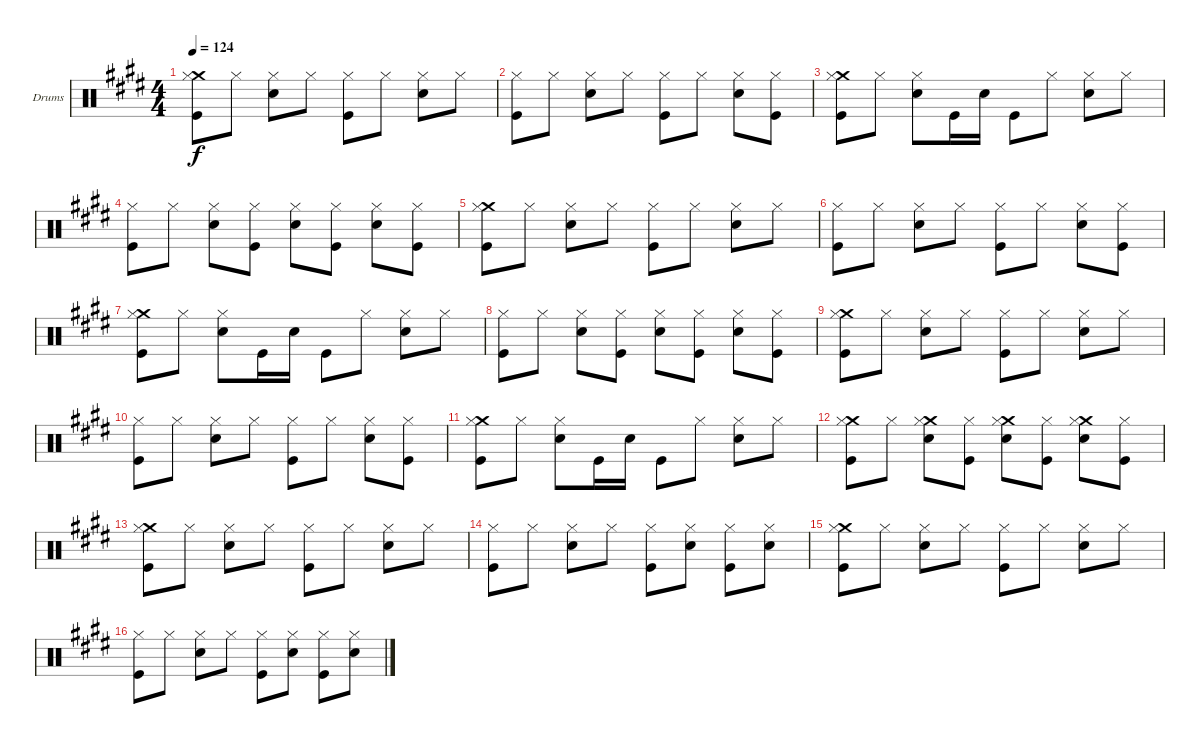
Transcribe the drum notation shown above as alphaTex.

\defaultSystemsLayout 4
\bracketExtendMode groupsimilarinstruments
\firstSystemTrackNameOrientation horizontal
\otherSystemsTrackNameOrientation horizontal
\track ("Drumkit" "Drums") {instrument percussion}
\staff {score}
\articulation defaults
\ts (4 4)
\tempo 124
\clef neutral
\scale
1.06557
\ks e
("Crash medium (hit)" "Hi-Hat (closed)" "Kick (hit)").8{dy f} "Hi-Hat (closed)".8 ("Hi-Hat (closed)" "Snare (hit) 2").8 "Hi-Hat (closed)".8 ("Hi-Hat (closed)" "Kick (hit)").8 "Hi-Hat (closed)".8 ("Hi-Hat (closed)" "Snare (hit) 2").8 "Hi-Hat (closed)".8 |
\scale
0.934426 ("Hi-Hat (closed)" "Kick (hit)").8 "Hi-Hat (closed)".8 ("Hi-Hat (closed)" "Snare (hit) 2").8 "Hi-Hat (closed)".8 ("Hi-Hat (closed)" "Kick (hit)").8 "Hi-Hat (closed)".8 ("Hi-Hat (closed)" "Snare (hit) 2").8 ("Hi-Hat (closed)" "Kick (hit)").8 |
\scale
1.06557 ("Crash medium (hit)" "Hi-Hat (closed)" "Kick (hit)").8 "Hi-Hat (closed)".8 ("Hi-Hat (closed)" "Snare (hit) 2").8 "Kick (hit)".16 "Snare (hit) 2".16 "Kick (hit)".8 "Hi-Hat (closed)".8 ("Hi-Hat (closed)" "Snare (hit) 2").8 "Hi-Hat (closed)".8 |
\scale
0.934426 ("Hi-Hat (closed)" "Kick (hit)").8 "Hi-Hat (closed)".8 ("Hi-Hat (closed)" "Snare (hit) 2").8 ("Hi-Hat (closed)" "Kick (hit)").8 ("Hi-Hat (closed)" "Snare (hit) 2").8 ("Hi-Hat (closed)" "Kick (hit)").8 ("Hi-Hat (closed)" "Snare (hit) 2").8 ("Hi-Hat (closed)" "Kick (hit)").8 |
\scale
1.06557 ("Crash medium (hit)" "Hi-Hat (closed)" "Kick (hit)").8 "Hi-Hat (closed)".8 ("Hi-Hat (closed)" "Snare (hit) 2").8 "Hi-Hat (closed)".8 ("Hi-Hat (closed)" "Kick (hit)").8 "Hi-Hat (closed)".8 ("Hi-Hat (closed)" "Snare (hit) 2").8 "Hi-Hat (closed)".8 |
\scale
0.934426 ("Hi-Hat (closed)" "Kick (hit)").8 "Hi-Hat (closed)".8 ("Hi-Hat (closed)" "Snare (hit) 2").8 "Hi-Hat (closed)".8 ("Hi-Hat (closed)" "Kick (hit)").8 "Hi-Hat (closed)".8 ("Hi-Hat (closed)" "Snare (hit) 2").8 ("Hi-Hat (closed)" "Kick (hit)").8 |
\scale
1.06557 ("Crash medium (hit)" "Hi-Hat (closed)" "Kick (hit)").8 "Hi-Hat (closed)".8 ("Hi-Hat (closed)" "Snare (hit) 2").8 "Kick (hit)".16 "Snare (hit) 2".16 "Kick (hit)".8 "Hi-Hat (closed)".8 ("Hi-Hat (closed)" "Snare (hit) 2").8 "Hi-Hat (closed)".8 |
\scale
0.934426 ("Hi-Hat (closed)" "Kick (hit)").8 "Hi-Hat (closed)".8 ("Hi-Hat (closed)" "Snare (hit) 2").8 ("Hi-Hat (closed)" "Kick (hit)").8 ("Hi-Hat (closed)" "Snare (hit) 2").8 ("Hi-Hat (closed)" "Kick (hit)").8 ("Hi-Hat (closed)" "Snare (hit) 2").8 ("Hi-Hat (closed)" "Kick (hit)").8 |
\scale
1.06557 ("Crash medium (hit)" "Hi-Hat (closed)" "Kick (hit)").8 "Hi-Hat (closed)".8 ("Hi-Hat (closed)" "Snare (hit) 2").8 "Hi-Hat (closed)".8 ("Hi-Hat (closed)" "Kick (hit)").8 "Hi-Hat (closed)".8 ("Hi-Hat (closed)" "Snare (hit) 2").8 "Hi-Hat (closed)".8 |
\scale
0.934426 ("Hi-Hat (closed)" "Kick (hit)").8 "Hi-Hat (closed)".8 ("Hi-Hat (closed)" "Snare (hit) 2").8 "Hi-Hat (closed)".8 ("Hi-Hat (closed)" "Kick (hit)").8 "Hi-Hat (closed)".8 ("Hi-Hat (closed)" "Snare (hit) 2").8 ("Hi-Hat (closed)" "Kick (hit)").8 |
\scale
1.06557 ("Crash medium (hit)" "Hi-Hat (closed)" "Kick (hit)").8 "Hi-Hat (closed)".8 ("Hi-Hat (closed)" "Snare (hit) 2").8 "Kick (hit)".16 "Snare (hit) 2".16 "Kick (hit)".8 "Hi-Hat (closed)".8 ("Hi-Hat (closed)" "Snare (hit) 2").8 "Hi-Hat (closed)".8 |
\scale
0.934426 ("Crash medium (hit)" "Hi-Hat (closed)" "Kick (hit)").8 "Hi-Hat (closed)".8 ("Crash medium (hit)" "Hi-Hat (closed)" "Snare (hit) 2").8 ("Hi-Hat (closed)" "Kick (hit)").8 ("Crash medium (hit)" "Hi-Hat (closed)" "Snare (hit) 2").8 ("Hi-Hat (closed)" "Kick (hit)").8 ("Crash medium (hit)" "Hi-Hat (closed)" "Snare (hit) 2").8 ("Hi-Hat (closed)" "Kick (hit)").8 |
\scale
1.06557 ("Crash medium (hit)" "Hi-Hat (closed)" "Kick (hit)").8 "Hi-Hat (closed)".8 ("Hi-Hat (closed)" "Snare (hit) 2").8 "Hi-Hat (closed)".8 ("Hi-Hat (closed)" "Kick (hit)").8 "Hi-Hat (closed)".8 ("Hi-Hat (closed)" "Snare (hit) 2").8 "Hi-Hat (closed)".8 |
\scale
0.934426 ("Hi-Hat (closed)" "Kick (hit)").8 "Hi-Hat (closed)".8 ("Hi-Hat (closed)" "Snare (hit) 2").8 "Hi-Hat (closed)".8 ("Hi-Hat (closed)" "Kick (hit)").8 ("Hi-Hat (closed)" "Snare (hit) 2").8 ("Hi-Hat (closed)" "Kick (hit)").8 ("Hi-Hat (closed)" "Snare (hit) 2").8 |
\scale
1.06557 ("Crash medium (hit)" "Hi-Hat (closed)" "Kick (hit)").8 "Hi-Hat (closed)".8 ("Hi-Hat (closed)" "Snare (hit) 2").8 "Hi-Hat (closed)".8 ("Hi-Hat (closed)" "Kick (hit)").8 "Hi-Hat (closed)".8 ("Hi-Hat (closed)" "Snare (hit) 2").8 "Hi-Hat (closed)".8 |
\scale
0.934426 ("Hi-Hat (closed)" "Kick (hit)").8 "Hi-Hat (closed)".8 ("Hi-Hat (closed)" "Snare (hit) 2").8 "Hi-Hat (closed)".8 ("Hi-Hat (closed)" "Kick (hit)").8 ("Hi-Hat (closed)" "Snare (hit) 2").8 ("Hi-Hat (closed)" "Kick (hit)").8 ("Hi-Hat (closed)" "Snare (hit) 2").8
